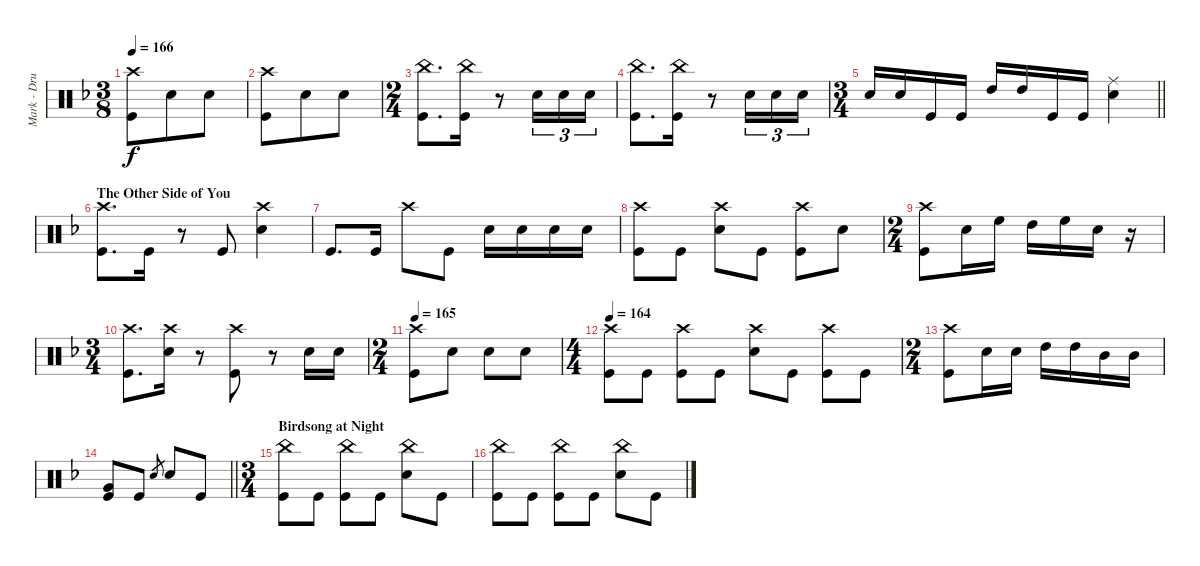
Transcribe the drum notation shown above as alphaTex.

\track ("Mark - Drums" "Mark - Dru") {instrument percussion}
\staff {score}
\articulation defaults
\ts (3 8)
\tempo 166
\clef neutral
\ks dminor
("Kick (hit)" "Crash high (hit)").8{dy f} "Snare (hit) 2".8 "Snare (hit) 2".8 |
("Kick (hit)" "Crash high (hit)").8 "Snare (hit) 2".8 "Snare (hit) 2".8 |
\ts (2 4)
("Kick (hit)" "China (hit)").8{d} ("Kick (hit)" "China (hit)").16 r.8 "Snare (hit) 2".16{tu (3 2)} "Snare (hit) 2".16{tu (3 2)} "Snare (hit) 2".16{tu (3 2)} |
("Kick (hit)" "China (hit)").8{d} ("Kick (hit)" "China (hit)").16 r.8 "Snare (hit) 2".16{tu (3 2)} "Snare (hit) 2".16{tu (3 2)} "Snare (hit) 2".16{tu (3 2)} |
\ts (3 4)
\barLineRight lightlight "Snare (hit) 2".16 "Snare (hit) 2".16 "Kick (hit)".16 "Kick (hit)".16 "High Tom (hit)".16 "High Tom (hit)".16 "Kick (hit)".16 "Kick (hit)".16
("Snare (hit) 2" "Ride (middle)").4 |
\section ("" "The Other Side of You")
("Kick (hit)" "Crash high (hit)").8{d} "Kick (hit)".16 r.8 "Kick (hit)".8 ("Snare (hit) 2" "Crash high (hit)").4 |
"Kick (hit)".8{d} "Kick (hit)".16 "Crash high (hit)".8 "Kick (hit)".8 "Snare (hit) 2".16 "Snare (hit) 2".16 "Snare (hit) 2".16 "Snare (hit) 2".16 |
("Kick (hit)" "Crash high (hit)").8 "Kick (hit)".8 ("Snare (hit) 2" "Crash high (hit)").8 "Kick (hit)".8 ("Kick (hit)" "Crash high (hit)").8 "Snare (hit) 2".8 |
\ts (2 4)
("Kick (hit)" "Crash high (hit)").8 "Snare (hit) 2".16 "High Floor Tom (hit)".16 "High Tom (hit)".16 "High Floor Tom (hit)".16 "Snare (hit) 2".16 r.16 |
\ts (3 4)
("Kick (hit)" "Crash high (hit)").8{d} ("Snare (hit) 2" "Crash high (hit)").16 r.8 ("Kick (hit)" "Crash high (hit)").8 r.8 "Snare (hit) 2".16 "Snare (hit) 2".16 |
\ts (2 4)
\tempo 165
("Kick (hit)" "Crash high (hit)").8 "Snare (hit) 2".8 "Snare (hit) 2".8 "Snare (hit) 2".8 |
\ts (4 4)
\tempo 164
("Kick (hit)" "Crash high (hit)").8 "Kick (hit)".8 ("Kick (hit)" "Crash high (hit)").8 "Kick (hit)".8 ("Snare (hit) 2" "Crash high (hit)").8 "Kick (hit)".8 ("Kick (hit)" "Crash high (hit)").8 "Kick (hit)".8 |
\ts (2 4)
("Kick (hit)" "Crash high (hit)").8 "Snare (hit) 2".16 "Snare (hit) 2".16 "High Tom (hit)".16 "High Tom (hit)".16 "Mid Tom (hit)".16 "Mid Tom (hit)".16 |
\barLineRight lightlight
("Very Low Tom (hit)" "Kick (hit)").8 "Kick (hit)".8 "Snare (hit) 2".8{gr} "Snare (hit) 2".8 "Kick (hit)".8 |
\ts (3 4)
\section ("" "Birdsong at Night")
("Kick (hit)" "China (hit)").8 "Kick (hit)".8 ("Kick (hit)" "China (hit)").8 "Kick (hit)".8 ("Snare (hit) 2" "China (hit)").8 "Kick (hit)".8 |
("Kick (hit)" "China (hit)").8 "Kick (hit)".8 ("Kick (hit)" "China (hit)").8 "Kick (hit)".8 ("Snare (hit) 2" "China (hit)").8 "Kick (hit)".8
